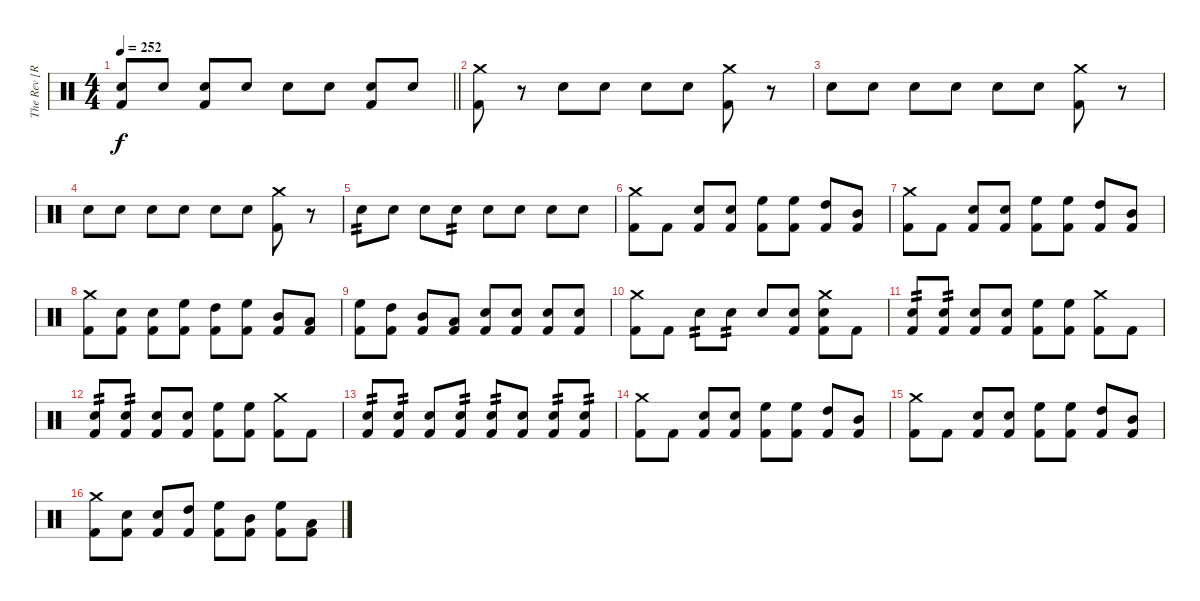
\track ("The Rev [R.I.P]" "The Rev [R") {instrument percussion}
\staff {score}
\articulation defaults
\ts (4 4)
\tempo 252
\clef neutral
\barLineRight lightlight
\ks c
("Electric Snare (hit)" "Kick (hit) 2").8{dy f} "Electric Snare (hit)".8 ("Electric Snare (hit)" "Kick (hit) 2").8 "Electric Snare (hit)".8 "Electric Snare (hit)".8 "Electric Snare (hit)".8 ("Electric Snare (hit)" "Kick (hit) 2").8 "Electric Snare (hit)".8 |
("Crash medium (hit)" "Kick (hit) 2").8 r.8 "Electric Snare (hit)".8 "Electric Snare (hit)".8 "Electric Snare (hit)".8 "Electric Snare (hit)".8 ("Crash medium (hit)" "Kick (hit) 2").8 r.8 |
"Electric Snare (hit)".8 "Electric Snare (hit)".8 "Electric Snare (hit)".8 "Electric Snare (hit)".8 "Electric Snare (hit)".8 "Electric Snare (hit)".8 ("Crash medium (hit)" "Kick (hit) 2").8 r.8 |
"Electric Snare (hit)".8 "Electric Snare (hit)".8 "Electric Snare (hit)".8 "Electric Snare (hit)".8 "Electric Snare (hit)".8 "Electric Snare (hit)".8 ("Crash medium (hit)" "Kick (hit) 2").8 r.8 |
"Electric Snare (hit)".8{tp 2} "Electric Snare (hit)".8 "Electric Snare (hit)".8 "Electric Snare (hit)".8{tp 2} "Electric Snare (hit)".8 "Electric Snare (hit)".8 "Electric Snare (hit)".8 "Electric Snare (hit)".8 |
("Crash medium (hit)" "Kick (hit) 2").8 "Kick (hit) 2".8 ("Electric Snare (hit)" "Kick (hit) 2").8 ("Electric Snare (hit)" "Kick (hit) 2").8 ("High Floor Tom (hit)" "Kick (hit) 2").8 ("High Floor Tom (hit)" "Kick (hit) 2").8 ("High Tom (hit)" "Kick (hit) 2").8 ("Mid Tom (hit)" "Kick (hit) 2").8 |
("Crash medium (hit)" "Kick (hit) 2").8 "Kick (hit) 2".8 ("Electric Snare (hit)" "Kick (hit) 2").8 ("Electric Snare (hit)" "Kick (hit) 2").8 ("High Floor Tom (hit)" "Kick (hit) 2").8 ("High Floor Tom (hit)" "Kick (hit) 2").8 ("High Tom (hit)" "Kick (hit) 2").8 ("Mid Tom (hit)" "Kick (hit) 2").8 |
("Crash medium (hit)" "Kick (hit) 2").8 ("Electric Snare (hit)" "Kick (hit) 2").8 ("Electric Snare (hit)" "Kick (hit) 2").8 ("High Floor Tom (hit)" "Kick (hit) 2").8 ("High Tom (hit)" "Kick (hit) 2").8 ("High Floor Tom (hit)" "Kick (hit) 2").8 ("Mid Tom (hit)" "Kick (hit) 2").8 ("Low Tom (hit)" "Kick (hit) 2").8 |
("High Floor Tom (hit)" "Kick (hit) 2").8 ("High Tom (hit)" "Kick (hit) 2").8 ("Mid Tom (hit)" "Kick (hit) 2").8 ("Low Tom (hit)" "Kick (hit) 2").8 ("Electric Snare (hit)" "Kick (hit) 2").8 ("Electric Snare (hit)" "Kick (hit) 2").8 ("Electric Snare (hit)" "Kick (hit) 2").8 ("Electric Snare (hit)" "Kick (hit) 2").8 |
("Crash medium (hit)" "Kick (hit) 2").8 "Kick (hit) 2".8 "Electric Snare (hit)".8{tp 2} "Electric Snare (hit)".8{tp 2} "Electric Snare (hit)".8 ("Electric Snare (hit)" "Kick (hit) 2").8 ("Crash medium (hit)" "Electric Snare (hit)" "Kick (hit) 2").8 "Kick (hit) 2".8 |
("Electric Snare (hit)" "Kick (hit) 2").8{tp 2} ("Electric Snare (hit)" "Kick (hit) 2").8{tp 2} ("Electric Snare (hit)" "Kick (hit) 2").8 ("Electric Snare (hit)" "Kick (hit) 2").8 ("High Floor Tom (hit)" "Kick (hit) 2").8 ("High Floor Tom (hit)" "Kick (hit) 2").8 ("Crash medium (hit)" "Kick (hit) 2").8 "Kick (hit) 2".8 |
("Electric Snare (hit)" "Kick (hit) 2").8{tp 2} ("Electric Snare (hit)" "Kick (hit) 2").8{tp 2} ("Electric Snare (hit)" "Kick (hit) 2").8 ("Electric Snare (hit)" "Kick (hit) 2").8 ("High Floor Tom (hit)" "Kick (hit) 2").8 ("High Floor Tom (hit)" "Kick (hit) 2").8 ("Crash medium (hit)" "Kick (hit) 2").8 "Kick (hit) 2".8 |
("Electric Snare (hit)" "Kick (hit) 2").8{tp 2} ("Electric Snare (hit)" "Kick (hit) 2").8{tp 2} ("Electric Snare (hit)" "Kick (hit) 2").8 ("Electric Snare (hit)" "Kick (hit) 2").8{tp 2} ("Electric Snare (hit)" "Kick (hit) 2").8{tp 2} ("Electric Snare (hit)" "Kick (hit) 2").8 ("Electric Snare (hit)" "Kick (hit) 2").8{tp 2} ("Electric Snare (hit)" "Kick (hit) 2").8{tp 2} |
("Crash medium (hit)" "Kick (hit) 2").8 "Kick (hit) 2".8 ("Electric Snare (hit)" "Kick (hit) 2").8 ("Electric Snare (hit)" "Kick (hit) 2").8 ("High Floor Tom (hit)" "Kick (hit) 2").8 ("High Floor Tom (hit)" "Kick (hit) 2").8 ("High Tom (hit)" "Kick (hit) 2").8 ("Mid Tom (hit)" "Kick (hit) 2").8 |
("Crash medium (hit)" "Kick (hit) 2").8 "Kick (hit) 2".8 ("Electric Snare (hit)" "Kick (hit) 2").8 ("Electric Snare (hit)" "Kick (hit) 2").8 ("High Floor Tom (hit)" "Kick (hit) 2").8 ("High Floor Tom (hit)" "Kick (hit) 2").8 ("High Tom (hit)" "Kick (hit) 2").8 ("Mid Tom (hit)" "Kick (hit) 2").8 |
("Crash medium (hit)" "Kick (hit) 2").8 ("Electric Snare (hit)" "Kick (hit) 2").8 ("Electric Snare (hit)" "Kick (hit) 2").8 ("High Tom (hit)" "Kick (hit) 2").8 ("High Floor Tom (hit)" "Kick (hit) 2").8 ("Mid Tom (hit)" "Kick (hit) 2").8 ("High Floor Tom (hit)" "Kick (hit) 2").8 ("Low Tom (hit)" "Kick (hit) 2").8
